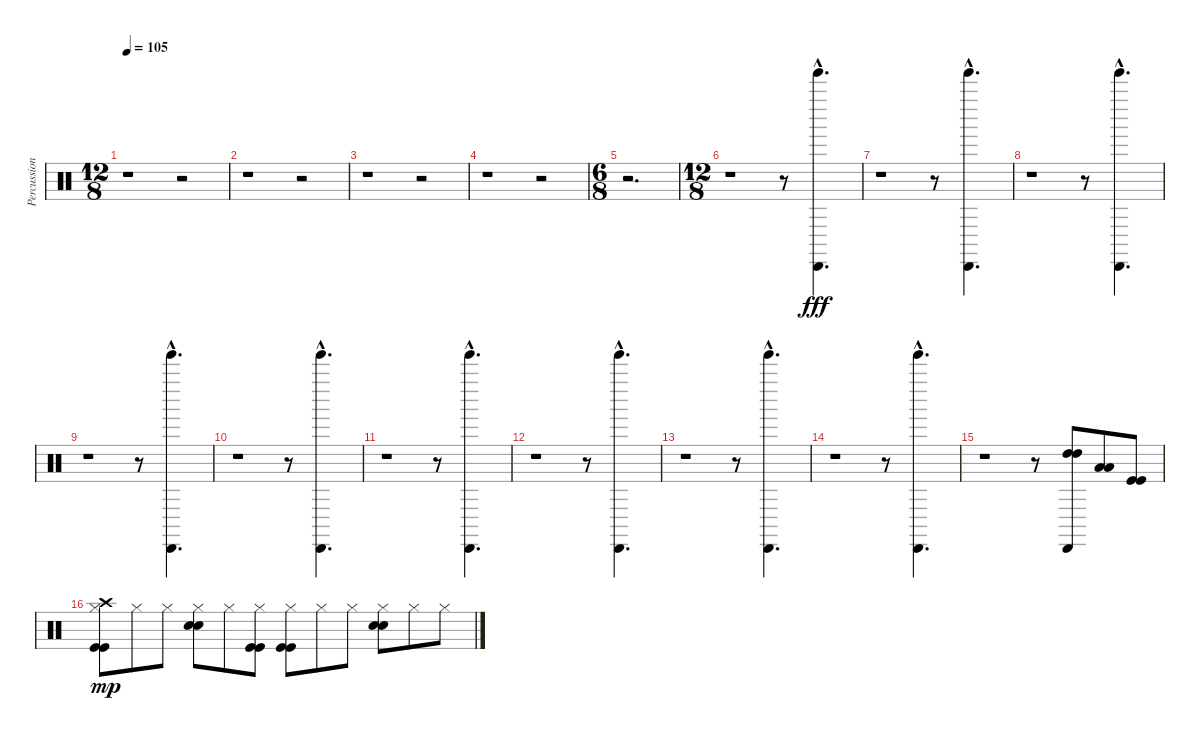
\track ("Percussion" "Percussion") {instrument percussion}
\staff {score}
\articulation defaults
\ts (12 8)
\tempo 105
\clef neutral
\ks c
r.1{dy fff} r.2 |
r.1 r.2 |
r.1 r.2 |
r.1 r.2 |
\ts (6 8)
r.2{d} |
\ts (12 8)
r.1 r.8 ("Cabasa (hit)"{hac} "Tinkle Bell (hit)"{hac}).4{d} |
r.1 r.8 ("Cabasa (hit)"{hac} "Tinkle Bell (hit)"{hac}).4{d} |
r.1 r.8 ("Cabasa (hit)"{hac} "Tinkle Bell (hit)"{hac}).4{d} |
r.1 r.8 ("Cabasa (hit)"{hac} "Tinkle Bell (hit)"{hac}).4{d} |
r.1 r.8 ("Cabasa (hit)"{hac} "Tinkle Bell (hit)"{hac}).4{d} |
r.1 r.8 ("Cabasa (hit)"{hac} "Tinkle Bell (hit)"{hac}).4{d} |
r.1 r.8 ("Cabasa (hit)"{hac} "Tinkle Bell (hit)"{hac}).4{d} |
r.1 r.8 ("Cabasa (hit)"{hac} "Tinkle Bell (hit)"{hac}).4{d} |
r.1 r.8 ("Cabasa (hit)"{hac} "Tinkle Bell (hit)"{hac}).4{d} |
r.1 r.8 ("High Tom (hit)" "High Tom (hit)" "Cabasa (hit)").8 ("Low Tom (hit)" "Low Tom (hit)").8 ("Kick (hit)" "Kick (hit)").8 |
("Kick (hit)" "Crash high (hit)" "Kick (hit)" "Hi-Hat (closed)").8{dy mp} "Hi-Hat (closed)".8 "Hi-Hat (closed)".8 ("Snare (hit) 2" "Snare (hit) 2" "Hi-Hat (closed)").8 "Hi-Hat (closed)".8 ("Kick (hit)" "Kick (hit)" "Hi-Hat (closed)").8 ("Kick (hit)" "Kick (hit)" "Hi-Hat (closed)").8 "Hi-Hat (closed)".8 "Hi-Hat (closed)".8 ("Snare (hit) 2" "Snare (hit) 2" "Hi-Hat (closed)").8 "Hi-Hat (closed)".8 "Hi-Hat (closed)".8
